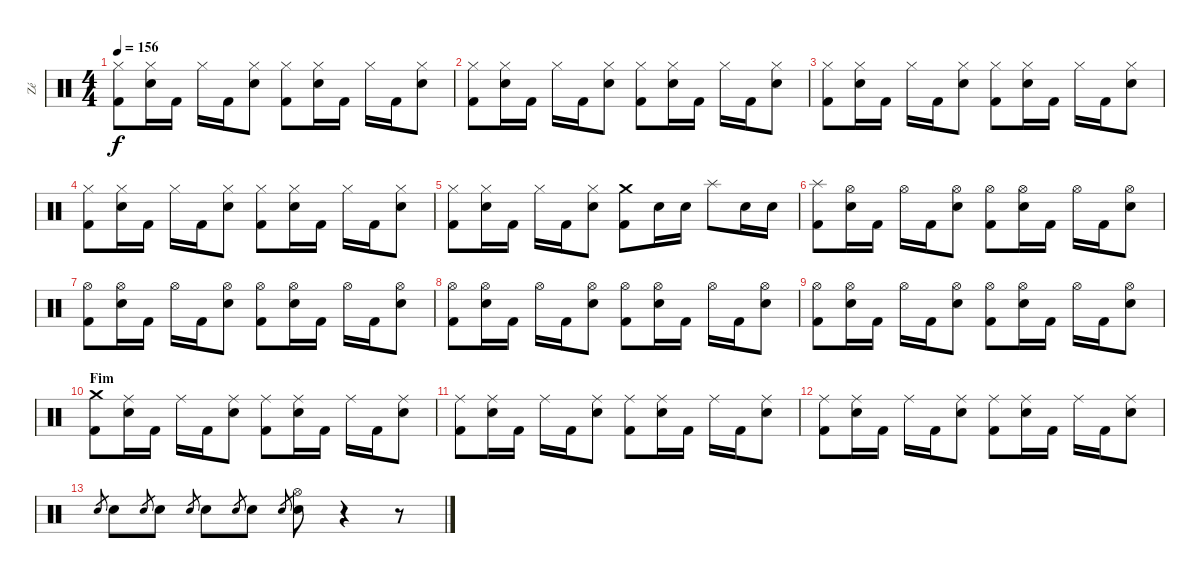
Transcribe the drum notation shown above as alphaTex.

\track ("Zé" "Zé") {instrument percussion}
\staff {score}
\articulation defaults
\ts (4 4)
\tempo 156
\clef neutral
\ks c
("Hi-Hat (closed)" "Kick (hit) 2").8{dy f} ("Hi-Hat (closed)" "Snare (hit) 2").16 "Kick (hit) 2".16 "Hi-Hat (closed)".16 "Kick (hit) 2".16 ("Hi-Hat (closed)" "Snare (hit) 2").8 ("Hi-Hat (closed)" "Kick (hit) 2").8 ("Hi-Hat (closed)" "Snare (hit) 2").16 "Kick (hit) 2".16 "Hi-Hat (closed)".16 "Kick (hit) 2".16 ("Hi-Hat (closed)" "Snare (hit) 2").8 |
("Hi-Hat (closed)" "Kick (hit) 2").8 ("Hi-Hat (closed)" "Snare (hit) 2").16 "Kick (hit) 2".16 "Hi-Hat (closed)".16 "Kick (hit) 2".16 ("Hi-Hat (closed)" "Snare (hit) 2").8 ("Hi-Hat (closed)" "Kick (hit) 2").8 ("Hi-Hat (closed)" "Snare (hit) 2").16 "Kick (hit) 2".16 "Hi-Hat (closed)".16 "Kick (hit) 2".16 ("Hi-Hat (closed)" "Snare (hit) 2").8 |
("Hi-Hat (closed)" "Kick (hit) 2").8 ("Hi-Hat (closed)" "Snare (hit) 2").16 "Kick (hit) 2".16 "Hi-Hat (closed)".16 "Kick (hit) 2".16 ("Hi-Hat (closed)" "Snare (hit) 2").8 ("Hi-Hat (closed)" "Kick (hit) 2").8 ("Hi-Hat (closed)" "Snare (hit) 2").16 "Kick (hit) 2".16 "Hi-Hat (closed)".16 "Kick (hit) 2".16 ("Hi-Hat (closed)" "Snare (hit) 2").8 |
("Hi-Hat (closed)" "Kick (hit) 2").8 ("Hi-Hat (closed)" "Snare (hit) 2").16 "Kick (hit) 2".16 "Hi-Hat (closed)".16 "Kick (hit) 2".16 ("Hi-Hat (closed)" "Snare (hit) 2").8 ("Hi-Hat (closed)" "Kick (hit) 2").8 ("Hi-Hat (closed)" "Snare (hit) 2").16 "Kick (hit) 2".16 "Hi-Hat (closed)".16 "Kick (hit) 2".16 ("Hi-Hat (closed)" "Snare (hit) 2").8 |
("Hi-Hat (closed)" "Kick (hit) 2").8 ("Hi-Hat (closed)" "Snare (hit) 2").16 "Kick (hit) 2".16 "Hi-Hat (closed)".16 "Kick (hit) 2".16 ("Hi-Hat (closed)" "Snare (hit) 2").8 ("Crash medium (hit)" "Kick (hit) 2").8 "Snare (hit) 2".16 "Snare (hit) 2".16 "Splash (hit)".8 "Snare (hit) 2".16 "Snare (hit) 2".16 |
("Splash (hit)" "Kick (hit) 2").8 ("Hi-Hat (open)" "Snare (hit) 2").16 "Kick (hit) 2".16 "Hi-Hat (open)".16 "Kick (hit) 2".16 ("Hi-Hat (open)" "Snare (hit) 2").8 ("Hi-Hat (open)" "Kick (hit) 2").8 ("Hi-Hat (open)" "Snare (hit) 2").16 "Kick (hit) 2".16 "Hi-Hat (open)".16 "Kick (hit) 2".16 ("Hi-Hat (open)" "Snare (hit) 2").8 |
("Hi-Hat (open)" "Kick (hit) 2").8 ("Hi-Hat (open)" "Snare (hit) 2").16 "Kick (hit) 2".16 "Hi-Hat (open)".16 "Kick (hit) 2".16 ("Hi-Hat (open)" "Snare (hit) 2").8 ("Hi-Hat (open)" "Kick (hit) 2").8 ("Hi-Hat (open)" "Snare (hit) 2").16 "Kick (hit) 2".16 "Hi-Hat (open)".16 "Kick (hit) 2".16 ("Hi-Hat (open)" "Snare (hit) 2").8 |
("Hi-Hat (open)" "Kick (hit) 2").8 ("Hi-Hat (open)" "Snare (hit) 2").16 "Kick (hit) 2".16 "Hi-Hat (open)".16 "Kick (hit) 2".16 ("Hi-Hat (open)" "Snare (hit) 2").8 ("Hi-Hat (open)" "Kick (hit) 2").8 ("Hi-Hat (open)" "Snare (hit) 2").16 "Kick (hit) 2".16 "Hi-Hat (open)".16 "Kick (hit) 2".16 ("Hi-Hat (open)" "Snare (hit) 2").8 |
("Hi-Hat (open)" "Kick (hit) 2").8 ("Hi-Hat (open)" "Snare (hit) 2").16 "Kick (hit) 2".16 "Hi-Hat (open)".16 "Kick (hit) 2".16 ("Hi-Hat (open)" "Snare (hit) 2").8 ("Hi-Hat (open)" "Kick (hit) 2").8 ("Hi-Hat (open)" "Snare (hit) 2").16 "Kick (hit) 2".16 "Hi-Hat (open)".16 "Kick (hit) 2".16 ("Hi-Hat (open)" "Snare (hit) 2").8 |
\section ("" "Fim")
("Crash medium (hit)" "Kick (hit) 2").8 ("Ride (middle)" "Snare (hit) 2").16 "Kick (hit) 2".16 "Ride (middle)".16 "Kick (hit) 2".16 ("Ride (middle)" "Snare (hit) 2").8 ("Ride (middle)" "Kick (hit) 2").8 ("Ride (middle)" "Snare (hit) 2").16 "Kick (hit) 2".16 "Ride (middle)".16 "Kick (hit) 2".16 ("Ride (middle)" "Snare (hit) 2").8 |
("Ride (middle)" "Kick (hit) 2").8 ("Ride (middle)" "Snare (hit) 2").16 "Kick (hit) 2".16 "Ride (middle)".16 "Kick (hit) 2".16 ("Ride (middle)" "Snare (hit) 2").8 ("Ride (middle)" "Kick (hit) 2").8 ("Ride (middle)" "Snare (hit) 2").16 "Kick (hit) 2".16 "Ride (middle)".16 "Kick (hit) 2".16 ("Ride (middle)" "Snare (hit) 2").8 |
("Ride (middle)" "Kick (hit) 2").8 ("Ride (middle)" "Snare (hit) 2").16 "Kick (hit) 2".16 "Ride (middle)".16 "Kick (hit) 2".16 ("Ride (middle)" "Snare (hit) 2").8 ("Ride (middle)" "Kick (hit) 2").8 ("Ride (middle)" "Snare (hit) 2").16 "Kick (hit) 2".16 "Ride (middle)".16 "Kick (hit) 2".16 ("Ride (middle)" "Snare (hit) 2").8 |
"Snare (hit) 2".8{gr} "Snare (hit) 2".8 "Snare (hit) 2".8{gr} "Snare (hit) 2".8 "Snare (hit) 2".8{gr} "Snare (hit) 2".8 "Snare (hit) 2".8{gr} "Snare (hit) 2".8 "Snare (hit) 2".8{gr} ("Hi-Hat (open)" "Snare (hit) 2").8 r.4 r.8
